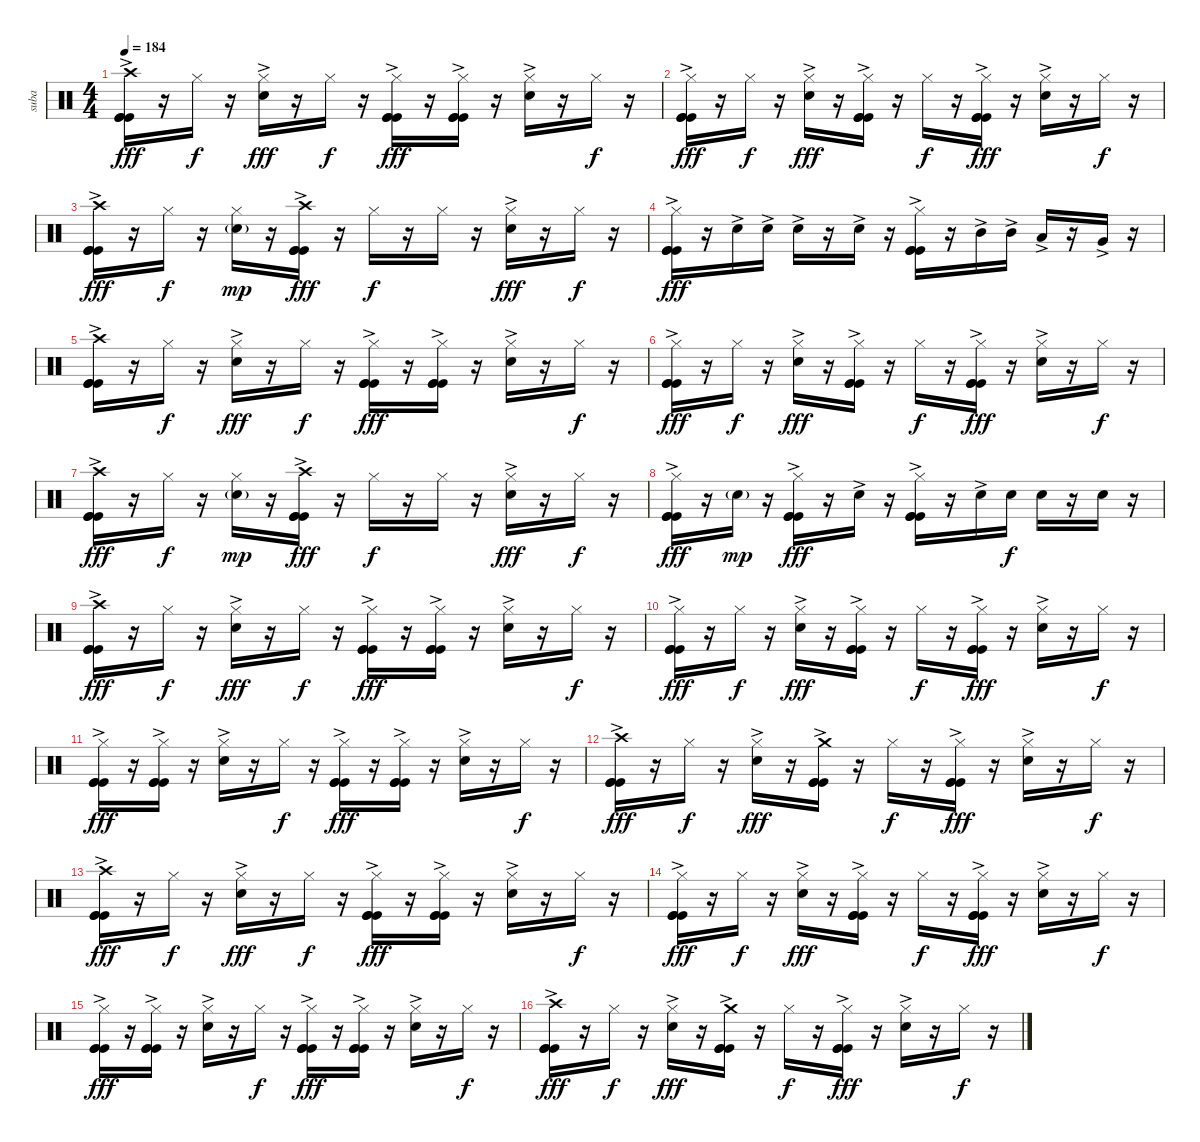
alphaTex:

\track ("suba" "suba") {instrument percussion}
\staff {score}
\articulation defaults
\ts (4 4)
\tempo 184
\clef neutral
\ks c
("Crash high (hit)"{ac} "Kick (hit)"{ac} "Kick (hit)"{ac} "Kick (hit)"{ac}).16{dy fff} r.16 "Hi-Hat (closed)".16{dy f} r.16 ("Hi-Hat (closed)" "Snare (hit) 2"{ac}).16{dy fff} r.16 "Hi-Hat (closed)".16{dy f} r.16 ("Hi-Hat (closed)" "Kick (hit)"{ac} "Kick (hit)"{ac} "Kick (hit)"{ac}).16{dy fff} r.16 ("Hi-Hat (closed)" "Kick (hit)"{ac} "Kick (hit)"{ac} "Kick (hit)"{ac}).16 r.16 ("Hi-Hat (closed)" "Snare (hit) 2"{ac}).16 r.16 "Hi-Hat (closed)".16{dy f} r.16 |
("Hi-Hat (closed)" "Kick (hit)"{ac} "Kick (hit)"{ac} "Kick (hit)"{ac}).16{dy fff} r.16 "Hi-Hat (closed)".16{dy f} r.16 ("Hi-Hat (closed)" "Snare (hit) 2"{ac}).16{dy fff} r.16 ("Hi-Hat (closed)" "Kick (hit)"{ac} "Kick (hit)"{ac} "Kick (hit)"{ac}).16 r.16 "Hi-Hat (closed)".16{dy f} r.16 ("Hi-Hat (closed)" "Kick (hit)"{ac} "Kick (hit)"{ac} "Kick (hit)"{ac}).16{dy fff} r.16 ("Hi-Hat (closed)" "Snare (hit) 2"{ac}).16 r.16 "Hi-Hat (closed)".16{dy f} r.16 |
("Crash high (hit)"{ac} "Kick (hit)"{ac} "Kick (hit)"{ac} "Kick (hit)"{ac}).16{dy fff} r.16 "Hi-Hat (closed)".16{dy f} r.16 ("Hi-Hat (closed)" "Snare (hit) 2"{g}).16{dy mp} r.16 ("Crash high (hit)" "Kick (hit)"{ac} "Kick (hit)"{ac} "Kick (hit)"{ac}).16{dy fff} r.16 "Hi-Hat (closed)".16{dy f} r.16 "Hi-Hat (closed)".16 r.16 ("Hi-Hat (closed)" "Snare (hit) 2"{ac}).16{dy fff} r.16 "Hi-Hat (closed)".16{dy f} r.16 |
("Hi-Hat (closed)" "Kick (hit)"{ac} "Kick (hit)"{ac} "Kick (hit)"{ac}).16{dy fff} r.16 "Snare (hit) 2"{ac}.16 "Snare (hit) 2"{ac}.16 "Snare (hit) 2"{ac}.16 r.16 "Snare (hit) 2"{ac}.16 r.16 ("Hi-Hat (closed)" "Kick (hit)"{ac} "Kick (hit)"{ac} "Kick (hit)"{ac}).16 r.16 "Mid Tom (hit)"{ac}.16 "Mid Tom (hit)"{ac}.16 "Low Tom (hit)"{ac}.16 r.16 "Very Low Tom (hit)"{ac}.16 r.16 |
("Crash high (hit)"{ac} "Kick (hit)"{ac} "Kick (hit)"{ac} "Kick (hit)"{ac}).16 r.16 "Hi-Hat (closed)".16{dy f} r.16 ("Hi-Hat (closed)" "Snare (hit) 2"{ac}).16{dy fff} r.16 "Hi-Hat (closed)".16{dy f} r.16 ("Hi-Hat (closed)" "Kick (hit)"{ac} "Kick (hit)"{ac} "Kick (hit)"{ac}).16{dy fff} r.16 ("Hi-Hat (closed)" "Kick (hit)"{ac} "Kick (hit)"{ac} "Kick (hit)"{ac}).16 r.16 ("Hi-Hat (closed)" "Snare (hit) 2"{ac}).16 r.16 "Hi-Hat (closed)".16{dy f} r.16 |
("Hi-Hat (closed)" "Kick (hit)"{ac} "Kick (hit)"{ac} "Kick (hit)"{ac}).16{dy fff} r.16 "Hi-Hat (closed)".16{dy f} r.16 ("Hi-Hat (closed)" "Snare (hit) 2"{ac}).16{dy fff} r.16 ("Hi-Hat (closed)" "Kick (hit)"{ac} "Kick (hit)"{ac} "Kick (hit)"{ac}).16 r.16 "Hi-Hat (closed)".16{dy f} r.16 ("Hi-Hat (closed)" "Kick (hit)"{ac} "Kick (hit)"{ac} "Kick (hit)"{ac}).16{dy fff} r.16 ("Hi-Hat (closed)" "Snare (hit) 2"{ac}).16 r.16 "Hi-Hat (closed)".16{dy f} r.16 |
("Crash high (hit)"{ac} "Kick (hit)"{ac} "Kick (hit)"{ac} "Kick (hit)"{ac}).16{dy fff} r.16 "Hi-Hat (closed)".16{dy f} r.16 ("Hi-Hat (closed)" "Snare (hit) 2"{g}).16{dy mp} r.16 ("Crash high (hit)" "Kick (hit)"{ac} "Kick (hit)"{ac} "Kick (hit)"{ac}).16{dy fff} r.16 "Hi-Hat (closed)".16{dy f} r.16 "Hi-Hat (closed)".16 r.16 ("Hi-Hat (closed)" "Snare (hit) 2"{ac}).16{dy fff} r.16 "Hi-Hat (closed)".16{dy f} r.16 |
("Hi-Hat (closed)" "Kick (hit)"{ac} "Kick (hit)"{ac} "Kick (hit)"{ac}).16{dy fff} r.16 "Snare (hit) 2"{g}.16{dy mp} r.16 ("Hi-Hat (closed)" "Kick (hit)"{ac} "Kick (hit)"{ac} "Kick (hit)"{ac}).16{dy fff} r.16 "Snare (hit) 2"{ac}.16 r.16 ("Hi-Hat (closed)" "Kick (hit)"{ac} "Kick (hit)"{ac} "Kick (hit)"{ac}).16 r.16 "Snare (hit) 2"{ac}.16 "Snare (hit) 2".16{dy f} "Snare (hit) 2".16 r.16 "Snare (hit) 2".16 r.16 |
("Crash high (hit)"{ac} "Kick (hit)"{ac} "Kick (hit)"{ac} "Kick (hit)"{ac}).16{dy fff} r.16 "Hi-Hat (closed)".16{dy f} r.16 ("Hi-Hat (closed)" "Snare (hit) 2"{ac}).16{dy fff} r.16 "Hi-Hat (closed)".16{dy f} r.16 ("Hi-Hat (closed)" "Kick (hit)"{ac} "Kick (hit)"{ac} "Kick (hit)"{ac}).16{dy fff} r.16 ("Hi-Hat (closed)" "Kick (hit)"{ac} "Kick (hit)"{ac} "Kick (hit)"{ac}).16 r.16 ("Hi-Hat (closed)" "Snare (hit) 2"{ac}).16 r.16 "Hi-Hat (closed)".16{dy f} r.16 |
("Hi-Hat (closed)" "Kick (hit)"{ac} "Kick (hit)"{ac} "Kick (hit)"{ac}).16{dy fff} r.16 "Hi-Hat (closed)".16{dy f} r.16 ("Hi-Hat (closed)" "Snare (hit) 2"{ac}).16{dy fff} r.16 ("Hi-Hat (closed)" "Kick (hit)"{ac} "Kick (hit)"{ac} "Kick (hit)"{ac}).16 r.16 "Hi-Hat (closed)".16{dy f} r.16 ("Hi-Hat (closed)" "Kick (hit)"{ac} "Kick (hit)"{ac} "Kick (hit)"{ac}).16{dy fff} r.16 ("Hi-Hat (closed)" "Snare (hit) 2"{ac}).16 r.16 "Hi-Hat (closed)".16{dy f} r.16 |
("Hi-Hat (closed)" "Kick (hit)"{ac} "Kick (hit)"{ac} "Kick (hit)"{ac}).16{dy fff} r.16 ("Hi-Hat (closed)" "Kick (hit)"{ac} "Kick (hit)"{ac} "Kick (hit)"{ac}).16 r.16 ("Hi-Hat (closed)" "Snare (hit) 2"{ac}).16 r.16 "Hi-Hat (closed)".16{dy f} r.16 ("Hi-Hat (closed)" "Kick (hit)"{ac} "Kick (hit)"{ac} "Kick (hit)"{ac}).16{dy fff} r.16 ("Hi-Hat (closed)" "Kick (hit)"{ac} "Kick (hit)"{ac} "Kick (hit)"{ac}).16 r.16 ("Hi-Hat (closed)" "Snare (hit) 2"{ac}).16 r.16 "Hi-Hat (closed)".16{dy f} r.16 |
("Crash high (hit)" "Kick (hit)"{ac} "Kick (hit)"{ac} "Kick (hit)"{ac}).16{dy fff} r.16 "Hi-Hat (closed)".16{dy f} r.16 ("Hi-Hat (closed)" "Snare (hit) 2"{ac}).16{dy fff} r.16 ("Crash medium (hit)"{ac} "Kick (hit)"{ac} "Kick (hit)"{ac} "Kick (hit)"{ac}).16 r.16 "Hi-Hat (closed)".16{dy f} r.16 ("Hi-Hat (closed)" "Kick (hit)"{ac} "Kick (hit)"{ac} "Kick (hit)"{ac}).16{dy fff} r.16 ("Hi-Hat (closed)" "Snare (hit) 2"{ac}).16 r.16 "Hi-Hat (closed)".16{dy f} r.16 |
("Crash high (hit)"{ac} "Kick (hit)"{ac} "Kick (hit)"{ac} "Kick (hit)"{ac}).16{dy fff} r.16 "Hi-Hat (closed)".16{dy f} r.16 ("Hi-Hat (closed)" "Snare (hit) 2"{ac}).16{dy fff} r.16 "Hi-Hat (closed)".16{dy f} r.16 ("Hi-Hat (closed)" "Kick (hit)"{ac} "Kick (hit)"{ac} "Kick (hit)"{ac}).16{dy fff} r.16 ("Hi-Hat (closed)" "Kick (hit)"{ac} "Kick (hit)"{ac} "Kick (hit)"{ac}).16 r.16 ("Hi-Hat (closed)" "Snare (hit) 2"{ac}).16 r.16 "Hi-Hat (closed)".16{dy f} r.16 |
("Hi-Hat (closed)" "Kick (hit)"{ac} "Kick (hit)"{ac} "Kick (hit)"{ac}).16{dy fff} r.16 "Hi-Hat (closed)".16{dy f} r.16 ("Hi-Hat (closed)" "Snare (hit) 2"{ac}).16{dy fff} r.16 ("Hi-Hat (closed)" "Kick (hit)"{ac} "Kick (hit)"{ac} "Kick (hit)"{ac}).16 r.16 "Hi-Hat (closed)".16{dy f} r.16 ("Hi-Hat (closed)" "Kick (hit)"{ac} "Kick (hit)"{ac} "Kick (hit)"{ac}).16{dy fff} r.16 ("Hi-Hat (closed)" "Snare (hit) 2"{ac}).16 r.16 "Hi-Hat (closed)".16{dy f} r.16 |
("Hi-Hat (closed)" "Kick (hit)"{ac} "Kick (hit)"{ac} "Kick (hit)"{ac}).16{dy fff} r.16 ("Hi-Hat (closed)" "Kick (hit)"{ac} "Kick (hit)"{ac} "Kick (hit)"{ac}).16 r.16 ("Hi-Hat (closed)" "Snare (hit) 2"{ac}).16 r.16 "Hi-Hat (closed)".16{dy f} r.16 ("Hi-Hat (closed)" "Kick (hit)"{ac} "Kick (hit)"{ac} "Kick (hit)"{ac}).16{dy fff} r.16 ("Hi-Hat (closed)" "Kick (hit)"{ac} "Kick (hit)"{ac} "Kick (hit)"{ac}).16 r.16 ("Hi-Hat (closed)" "Snare (hit) 2"{ac}).16 r.16 "Hi-Hat (closed)".16{dy f} r.16 |
("Crash high (hit)" "Kick (hit)"{ac} "Kick (hit)"{ac} "Kick (hit)"{ac}).16{dy fff} r.16 "Hi-Hat (closed)".16{dy f} r.16 ("Hi-Hat (closed)" "Snare (hit) 2"{ac}).16{dy fff} r.16 ("Crash medium (hit)"{ac} "Kick (hit)"{ac} "Kick (hit)"{ac} "Kick (hit)"{ac}).16 r.16 "Hi-Hat (closed)".16{dy f} r.16 ("Hi-Hat (closed)" "Kick (hit)"{ac} "Kick (hit)"{ac} "Kick (hit)"{ac}).16{dy fff} r.16 ("Hi-Hat (closed)" "Snare (hit) 2"{ac}).16 r.16 "Hi-Hat (closed)".16{dy f} r.16
